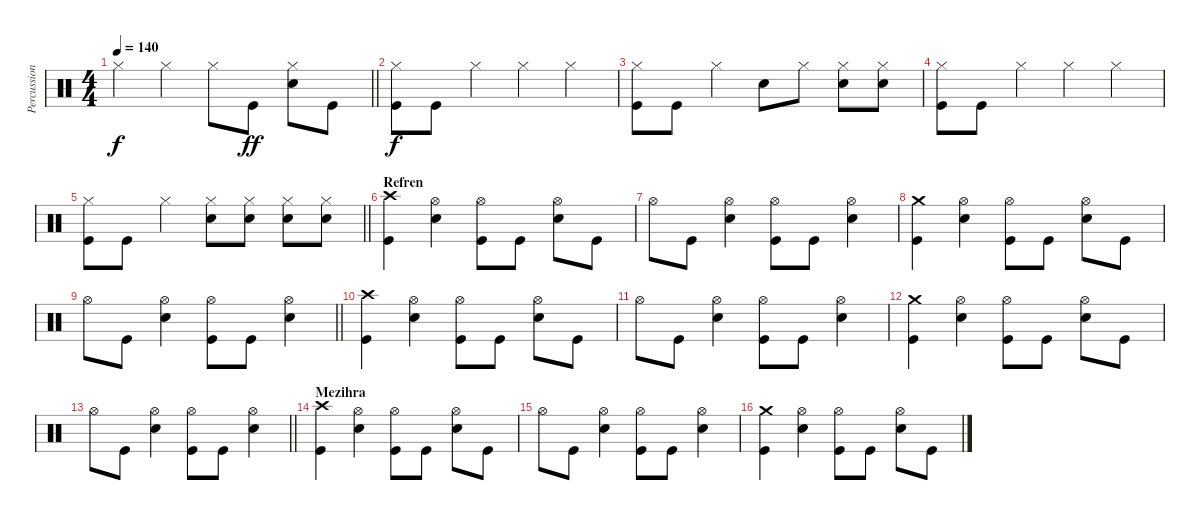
\track ("Percussion" "Percussion") {instrument percussion}
\staff {score}
\articulation defaults
\ts (4 4)
\tempo 140
\clef neutral
\barLineRight lightlight
\ks c "Hi-Hat (closed)".4{dy f} "Hi-Hat (closed)".4 "Hi-Hat (closed)".8 "Kick (hit)".8{dy ff}
("Hi-Hat (closed)" "Electric Snare (hit)").8 "Kick (hit)".8 |
("Hi-Hat (closed)" "Kick (hit)").8{dy f} "Kick (hit)".8 "Hi-Hat (closed)".4 "Hi-Hat (closed)".4 "Hi-Hat (closed)".4 |
("Hi-Hat (closed)" "Kick (hit)").8 "Kick (hit)".8 "Hi-Hat (closed)".4 "Electric Snare (hit)".8 "Hi-Hat (closed)".8 ("Hi-Hat (closed)" "Electric Snare (hit)").8 ("Hi-Hat (closed)" "Electric Snare (hit)").8 |
("Hi-Hat (closed)" "Kick (hit)").8 "Kick (hit)".8 "Hi-Hat (closed)".4 "Hi-Hat (closed)".4 "Hi-Hat (closed)".4 |
\barLineRight lightlight
("Hi-Hat (closed)" "Kick (hit)").8 "Kick (hit)".8 "Hi-Hat (closed)".4 ("Hi-Hat (closed)" "Electric Snare (hit)").8 ("Hi-Hat (closed)" "Electric Snare (hit)").8 ("Hi-Hat (closed)" "Electric Snare (hit)").8 ("Hi-Hat (closed)" "Electric Snare (hit)").8 |
\section ("" "Refren")
("Crash high (hit)" "Kick (hit)").4 ("Hi-Hat (open)" "Electric Snare (hit)").4 ("Hi-Hat (open)" "Kick (hit)").8 "Kick (hit)".8 ("Hi-Hat (open)" "Electric Snare (hit)").8 "Kick (hit)".8 |
"Hi-Hat (open)".8 "Kick (hit)".8 ("Hi-Hat (open)" "Electric Snare (hit)").4 ("Hi-Hat (open)" "Kick (hit)").8 "Kick (hit)".8 ("Hi-Hat (open)" "Electric Snare (hit)").4 |
("Crash medium (hit)" "Kick (hit)").4 ("Hi-Hat (open)" "Electric Snare (hit)").4 ("Hi-Hat (open)" "Kick (hit)").8 "Kick (hit)".8 ("Hi-Hat (open)" "Electric Snare (hit)").8 "Kick (hit)".8 |
\barLineRight lightlight "Hi-Hat (open)".8 "Kick (hit)".8
("Hi-Hat (open)" "Electric Snare (hit)").4 ("Hi-Hat (open)" "Kick (hit)").8 "Kick (hit)".8 ("Hi-Hat (open)" "Electric Snare (hit)").4 |
("Crash high (hit)" "Kick (hit)").4 ("Hi-Hat (open)" "Electric Snare (hit)").4 ("Hi-Hat (open)" "Kick (hit)").8 "Kick (hit)".8 ("Hi-Hat (open)" "Electric Snare (hit)").8 "Kick (hit)".8 |
"Hi-Hat (open)".8 "Kick (hit)".8 ("Hi-Hat (open)" "Electric Snare (hit)").4 ("Hi-Hat (open)" "Kick (hit)").8 "Kick (hit)".8 ("Hi-Hat (open)" "Electric Snare (hit)").4 |
("Crash medium (hit)" "Kick (hit)").4 ("Hi-Hat (open)" "Electric Snare (hit)").4 ("Hi-Hat (open)" "Kick (hit)").8 "Kick (hit)".8 ("Hi-Hat (open)" "Electric Snare (hit)").8 "Kick (hit)".8 |
\barLineRight lightlight "Hi-Hat (open)".8 "Kick (hit)".8
("Hi-Hat (open)" "Electric Snare (hit)").4 ("Hi-Hat (open)" "Kick (hit)").8 "Kick (hit)".8 ("Hi-Hat (open)" "Electric Snare (hit)").4 |
\section ("" "Mezihra")
("Crash high (hit)" "Kick (hit)").4 ("Hi-Hat (open)" "Electric Snare (hit)").4 ("Hi-Hat (open)" "Kick (hit)").8 "Kick (hit)".8 ("Hi-Hat (open)" "Electric Snare (hit)").8 "Kick (hit)".8 |
"Hi-Hat (open)".8 "Kick (hit)".8 ("Hi-Hat (open)" "Electric Snare (hit)").4 ("Hi-Hat (open)" "Kick (hit)").8 "Kick (hit)".8 ("Hi-Hat (open)" "Electric Snare (hit)").4 |
("Crash medium (hit)" "Kick (hit)").4 ("Hi-Hat (open)" "Electric Snare (hit)").4 ("Hi-Hat (open)" "Kick (hit)").8 "Kick (hit)".8 ("Hi-Hat (open)" "Electric Snare (hit)").8 "Kick (hit)".8
